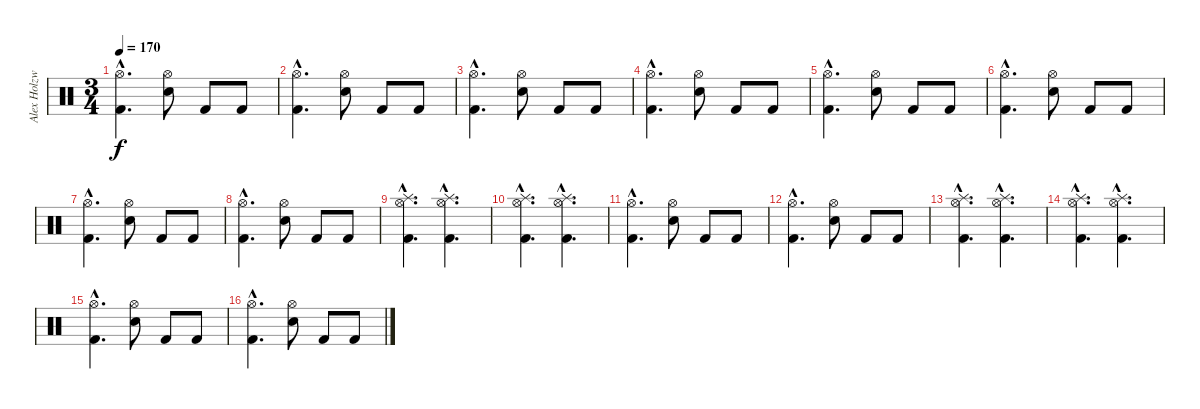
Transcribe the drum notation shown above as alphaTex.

\track ("Alex Holzwarth - Drums" "Alex Holzw") {instrument percussion}
\staff {score}
\articulation defaults
\ts (3 4)
\tempo 170
\clef neutral
\ks c
("Hi-Hat (open)"{hac} "Kick (hit) 2"{hac}).4{d dy f} ("Hi-Hat (open)" "Snare (hit) 2").8 "Kick (hit) 2".8 "Kick (hit) 2".8 |
("Hi-Hat (open)"{hac} "Kick (hit) 2"{hac}).4{d} ("Hi-Hat (open)" "Snare (hit) 2").8 "Kick (hit) 2".8 "Kick (hit) 2".8 |
("Hi-Hat (open)"{hac} "Kick (hit) 2"{hac}).4{d} ("Hi-Hat (open)" "Snare (hit) 2").8 "Kick (hit) 2".8 "Kick (hit) 2".8 |
("Hi-Hat (open)"{hac} "Kick (hit) 2"{hac}).4{d} ("Hi-Hat (open)" "Snare (hit) 2").8 "Kick (hit) 2".8 "Kick (hit) 2".8 |
("Hi-Hat (open)"{hac} "Kick (hit) 2"{hac}).4{d} ("Hi-Hat (open)" "Snare (hit) 2").8 "Kick (hit) 2".8 "Kick (hit) 2".8 |
("Hi-Hat (open)"{hac} "Kick (hit) 2"{hac}).4{d} ("Hi-Hat (open)" "Snare (hit) 2").8 "Kick (hit) 2".8 "Kick (hit) 2".8 |
("Hi-Hat (open)"{hac} "Kick (hit) 2"{hac}).4{d} ("Hi-Hat (open)" "Snare (hit) 2").8 "Kick (hit) 2".8 "Kick (hit) 2".8 |
("Hi-Hat (open)"{hac} "Kick (hit) 2"{hac}).4{d} ("Hi-Hat (open)" "Snare (hit) 2").8 "Kick (hit) 2".8 "Kick (hit) 2".8 |
("Hi-Hat (open)"{hac} "Splash (hit)"{hac} "Kick (hit) 2"{hac}).4{d} ("Hi-Hat (open)"{hac} "Splash (hit)"{hac} "Kick (hit) 2"{hac}).4{d} |
("Hi-Hat (open)"{hac} "Splash (hit)"{hac} "Kick (hit) 2"{hac}).4{d} ("Hi-Hat (open)"{hac} "Splash (hit)"{hac} "Kick (hit) 2"{hac}).4{d} |
("Hi-Hat (open)"{hac} "Kick (hit) 2"{hac}).4{d} ("Hi-Hat (open)" "Snare (hit) 2").8 "Kick (hit) 2".8 "Kick (hit) 2".8 |
("Hi-Hat (open)"{hac} "Kick (hit) 2"{hac}).4{d} ("Hi-Hat (open)" "Snare (hit) 2").8 "Kick (hit) 2".8 "Kick (hit) 2".8 |
("Hi-Hat (open)"{hac} "Splash (hit)"{hac} "Kick (hit) 2"{hac}).4{d} ("Hi-Hat (open)"{hac} "Splash (hit)"{hac} "Kick (hit) 2"{hac}).4{d} |
("Hi-Hat (open)"{hac} "Splash (hit)"{hac} "Kick (hit) 2"{hac}).4{d} ("Hi-Hat (open)"{hac} "Splash (hit)"{hac} "Kick (hit) 2"{hac}).4{d} |
("Hi-Hat (open)"{hac} "Kick (hit) 2"{hac}).4{d} ("Hi-Hat (open)" "Snare (hit) 2").8 "Kick (hit) 2".8 "Kick (hit) 2".8 |
("Hi-Hat (open)"{hac} "Kick (hit) 2"{hac}).4{d} ("Hi-Hat (open)" "Snare (hit) 2").8 "Kick (hit) 2".8 "Kick (hit) 2".8
